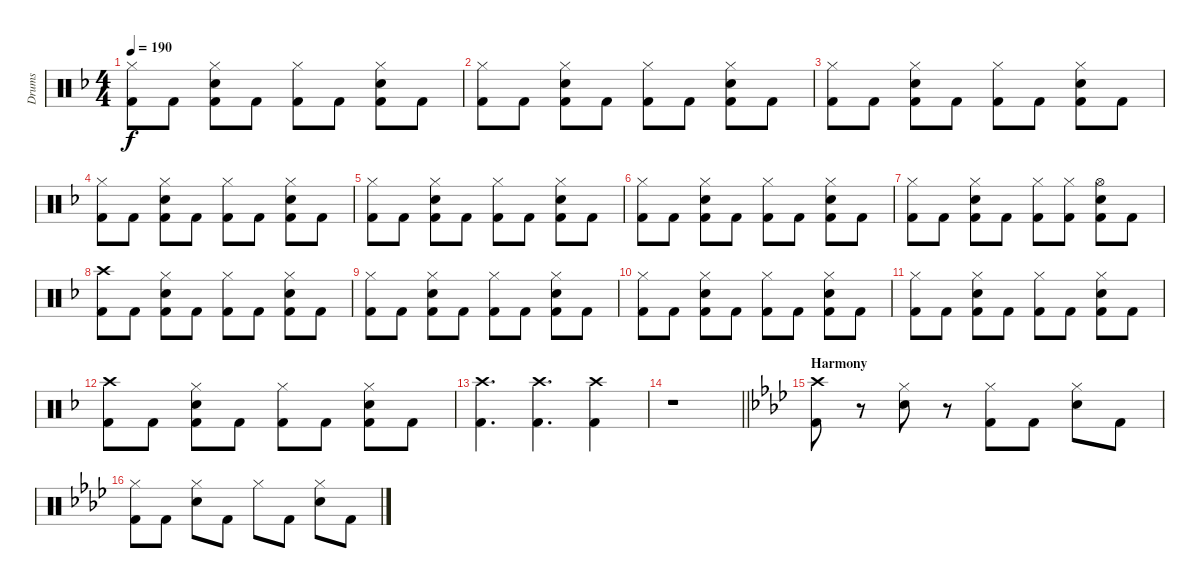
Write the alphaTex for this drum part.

\track ("Drums" "Drums") {instrument percussion}
\staff {score}
\articulation defaults
\ts (4 4)
\tempo 190
\clef neutral
\ks dminor
("Hi-Hat (closed)" "Kick (hit) 2").8{dy f} "Kick (hit) 2".8 ("Hi-Hat (closed)" "Electric Snare (hit)" "Kick (hit) 2").8 "Kick (hit) 2".8 ("Hi-Hat (closed)" "Kick (hit) 2").8 "Kick (hit) 2".8 ("Hi-Hat (closed)" "Electric Snare (hit)" "Kick (hit) 2").8 "Kick (hit) 2".8 |
("Hi-Hat (closed)" "Kick (hit) 2").8 "Kick (hit) 2".8 ("Hi-Hat (closed)" "Electric Snare (hit)" "Kick (hit) 2").8 "Kick (hit) 2".8 ("Hi-Hat (closed)" "Kick (hit) 2").8 "Kick (hit) 2".8 ("Hi-Hat (closed)" "Electric Snare (hit)" "Kick (hit) 2").8 "Kick (hit) 2".8 |
("Hi-Hat (closed)" "Kick (hit) 2").8 "Kick (hit) 2".8 ("Hi-Hat (closed)" "Electric Snare (hit)" "Kick (hit) 2").8 "Kick (hit) 2".8 ("Hi-Hat (closed)" "Kick (hit) 2").8 "Kick (hit) 2".8 ("Hi-Hat (closed)" "Electric Snare (hit)" "Kick (hit) 2").8 "Kick (hit) 2".8 |
("Hi-Hat (closed)" "Kick (hit) 2").8 "Kick (hit) 2".8 ("Hi-Hat (closed)" "Electric Snare (hit)" "Kick (hit) 2").8 "Kick (hit) 2".8 ("Hi-Hat (closed)" "Kick (hit) 2").8 "Kick (hit) 2".8 ("Hi-Hat (closed)" "Electric Snare (hit)" "Kick (hit) 2").8 "Kick (hit) 2".8 |
("Hi-Hat (closed)" "Kick (hit) 2").8 "Kick (hit) 2".8 ("Hi-Hat (closed)" "Electric Snare (hit)" "Kick (hit) 2").8 "Kick (hit) 2".8 ("Hi-Hat (closed)" "Kick (hit) 2").8 "Kick (hit) 2".8 ("Hi-Hat (closed)" "Electric Snare (hit)" "Kick (hit) 2").8 "Kick (hit) 2".8 |
("Hi-Hat (closed)" "Kick (hit) 2").8 "Kick (hit) 2".8 ("Hi-Hat (closed)" "Electric Snare (hit)" "Kick (hit) 2").8 "Kick (hit) 2".8 ("Hi-Hat (closed)" "Kick (hit) 2").8 "Kick (hit) 2".8 ("Hi-Hat (closed)" "Electric Snare (hit)" "Kick (hit) 2").8 "Kick (hit) 2".8 |
("Hi-Hat (closed)" "Kick (hit) 2").8 "Kick (hit) 2".8 ("Hi-Hat (closed)" "Electric Snare (hit)" "Kick (hit) 2").8 "Kick (hit) 2".8 ("Hi-Hat (closed)" "Kick (hit) 2").8 ("Hi-Hat (closed)" "Kick (hit) 2").8 ("Hi-Hat (open)" "Electric Snare (hit)" "Kick (hit) 2").8 "Kick (hit) 2".8 |
("Crash high (hit)" "Kick (hit) 2").8 "Kick (hit) 2".8 ("Hi-Hat (closed)" "Electric Snare (hit)" "Kick (hit) 2").8 "Kick (hit) 2".8 ("Hi-Hat (closed)" "Kick (hit) 2").8 "Kick (hit) 2".8 ("Hi-Hat (closed)" "Electric Snare (hit)" "Kick (hit) 2").8 "Kick (hit) 2".8 |
("Hi-Hat (closed)" "Kick (hit) 2").8 "Kick (hit) 2".8 ("Hi-Hat (closed)" "Electric Snare (hit)" "Kick (hit) 2").8 "Kick (hit) 2".8 ("Hi-Hat (closed)" "Kick (hit) 2").8 "Kick (hit) 2".8 ("Hi-Hat (closed)" "Electric Snare (hit)" "Kick (hit) 2").8 "Kick (hit) 2".8 |
("Hi-Hat (closed)" "Kick (hit) 2").8 "Kick (hit) 2".8 ("Hi-Hat (closed)" "Electric Snare (hit)" "Kick (hit) 2").8 "Kick (hit) 2".8 ("Hi-Hat (closed)" "Kick (hit) 2").8 "Kick (hit) 2".8 ("Hi-Hat (closed)" "Electric Snare (hit)" "Kick (hit) 2").8 "Kick (hit) 2".8 |
("Hi-Hat (closed)" "Kick (hit) 2").8 "Kick (hit) 2".8 ("Hi-Hat (closed)" "Electric Snare (hit)" "Kick (hit) 2").8 "Kick (hit) 2".8 ("Hi-Hat (closed)" "Kick (hit) 2").8 "Kick (hit) 2".8 ("Hi-Hat (closed)" "Electric Snare (hit)" "Kick (hit) 2").8 "Kick (hit) 2".8 |
("Crash high (hit)" "Kick (hit) 2").8 "Kick (hit) 2".8 ("Hi-Hat (closed)" "Electric Snare (hit)" "Kick (hit) 2").8 "Kick (hit) 2".8 ("Hi-Hat (closed)" "Kick (hit) 2").8 "Kick (hit) 2".8 ("Hi-Hat (closed)" "Electric Snare (hit)" "Kick (hit) 2").8 "Kick (hit) 2".8 |
("Crash high (hit)" "Kick (hit) 2").4{d} ("Crash high (hit)" "Kick (hit) 2").4{d} ("Crash high (hit)" "Kick (hit) 2").4 |
\barLineRight lightlight
r.1 |
\section ("" "Harmony")
\ks fminor
("Crash high (hit)" "Kick (hit) 2").8 r.8 ("Hi-Hat (closed)" "Electric Snare (hit)").8 r.8 ("Hi-Hat (closed)" "Kick (hit) 2").8 "Kick (hit) 2".8 ("Hi-Hat (closed)" "Electric Snare (hit)").8 "Kick (hit) 2".8 |
("Hi-Hat (closed)" "Kick (hit) 2").8 "Kick (hit) 2".8 ("Hi-Hat (closed)" "Electric Snare (hit)").8 "Kick (hit) 2".8 "Hi-Hat (closed)".8 "Kick (hit) 2".8 ("Hi-Hat (closed)" "Electric Snare (hit)").8 "Kick (hit) 2".8
